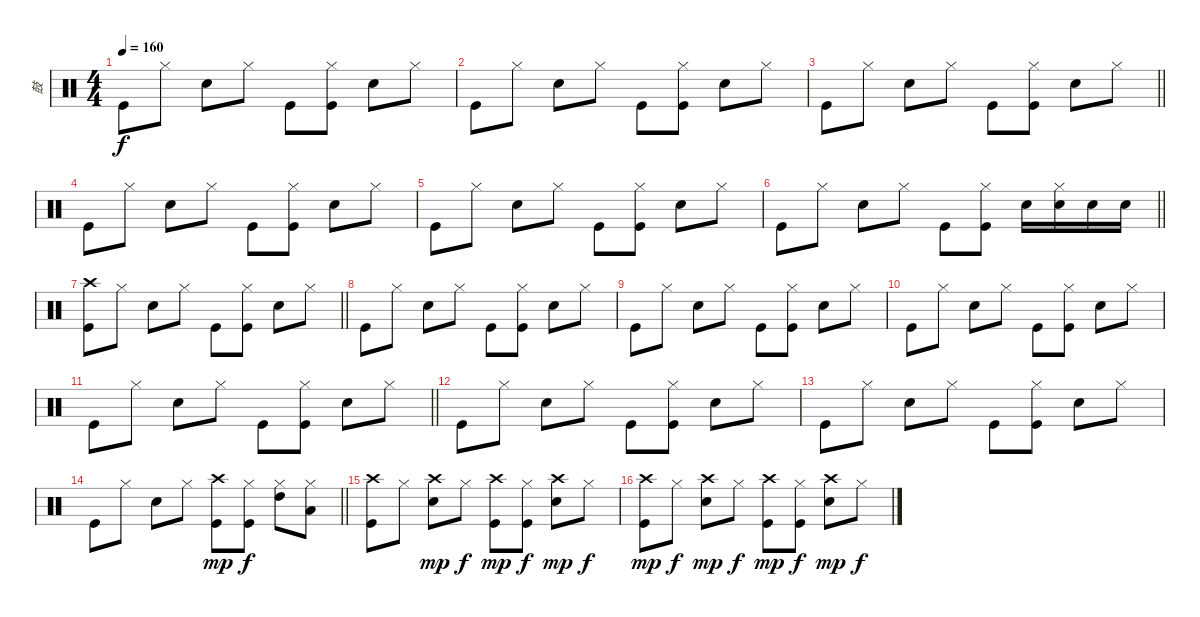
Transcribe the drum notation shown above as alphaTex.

\track ("鼓" "鼓") {instrument percussion}
\staff {score}
\articulation defaults
\ts (4 4)
\tempo 160
\clef neutral
\ks c "Kick (hit)".8{dy f} "Hi-Hat (closed)".8 "Electric Snare (hit)".8 "Hi-Hat (closed)".8 "Kick (hit)".8
("Hi-Hat (closed)" "Kick (hit)").8 "Electric Snare (hit)".8 "Hi-Hat (closed)".8 |
"Kick (hit)".8 "Hi-Hat (closed)".8 "Electric Snare (hit)".8 "Hi-Hat (closed)".8 "Kick (hit)".8 ("Hi-Hat (closed)" "Kick (hit)").8 "Electric Snare (hit)".8 "Hi-Hat (closed)".8 |
\barLineRight lightlight "Kick (hit)".8 "Hi-Hat (closed)".8 "Electric Snare (hit)".8 "Hi-Hat (closed)".8 "Kick (hit)".8
("Hi-Hat (closed)" "Kick (hit)").8 "Electric Snare (hit)".8 "Hi-Hat (closed)".8 |
"Kick (hit)".8 "Hi-Hat (closed)".8 "Electric Snare (hit)".8 "Hi-Hat (closed)".8 "Kick (hit)".8 ("Hi-Hat (closed)" "Kick (hit)").8 "Electric Snare (hit)".8 "Hi-Hat (closed)".8 |
"Kick (hit)".8 "Hi-Hat (closed)".8 "Electric Snare (hit)".8 "Hi-Hat (closed)".8 "Kick (hit)".8 ("Hi-Hat (closed)" "Kick (hit)").8 "Electric Snare (hit)".8 "Hi-Hat (closed)".8 |
\barLineRight lightlight "Kick (hit)".8 "Hi-Hat (closed)".8 "Electric Snare (hit)".8 "Hi-Hat (closed)".8 "Kick (hit)".8
("Hi-Hat (closed)" "Kick (hit)").8 "Electric Snare (hit)".16 ("Hi-Hat (closed)" "Electric Snare (hit)").16 "Electric Snare (hit)".16 "Electric Snare (hit)".16 |
\section ("" "")
\barLineRight lightlight
("Crash high (hit)" "Kick (hit)").8 "Hi-Hat (closed)".8 "Electric Snare (hit)".8 "Hi-Hat (closed)".8 "Kick (hit)".8 ("Hi-Hat (closed)" "Kick (hit)").8 "Electric Snare (hit)".8 "Hi-Hat (closed)".8 |
"Kick (hit)".8 "Hi-Hat (closed)".8 "Electric Snare (hit)".8 "Hi-Hat (closed)".8 "Kick (hit)".8 ("Hi-Hat (closed)" "Kick (hit)").8 "Electric Snare (hit)".8 "Hi-Hat (closed)".8 |
"Kick (hit)".8 "Hi-Hat (closed)".8 "Electric Snare (hit)".8 "Hi-Hat (closed)".8 "Kick (hit)".8 ("Hi-Hat (closed)" "Kick (hit)").8 "Electric Snare (hit)".8 "Hi-Hat (closed)".8 |
"Kick (hit)".8 "Hi-Hat (closed)".8 "Electric Snare (hit)".8 "Hi-Hat (closed)".8 "Kick (hit)".8 ("Hi-Hat (closed)" "Kick (hit)").8 "Electric Snare (hit)".8 "Hi-Hat (closed)".8 |
\barLineRight lightlight "Kick (hit)".8 "Hi-Hat (closed)".8 "Electric Snare (hit)".8 "Hi-Hat (closed)".8 "Kick (hit)".8
("Hi-Hat (closed)" "Kick (hit)").8 "Electric Snare (hit)".8 "Hi-Hat (closed)".8 |
"Kick (hit)".8 "Hi-Hat (closed)".8 "Electric Snare (hit)".8 "Hi-Hat (closed)".8 "Kick (hit)".8 ("Hi-Hat (closed)" "Kick (hit)").8 "Electric Snare (hit)".8 "Hi-Hat (closed)".8 |
"Kick (hit)".8 "Hi-Hat (closed)".8 "Electric Snare (hit)".8 "Hi-Hat (closed)".8 "Kick (hit)".8 ("Hi-Hat (closed)" "Kick (hit)").8 "Electric Snare (hit)".8 "Hi-Hat (closed)".8 |
\barLineRight lightlight "Kick (hit)".8 "Hi-Hat (closed)".8 "Electric Snare (hit)".8 "Hi-Hat (closed)".8
("Crash high (hit)" "Kick (hit)").8{dy mp} ("Hi-Hat (closed)" "Kick (hit)").8{dy f} ("High Tom (hit)" "Hi-Hat (closed)").8{volume 16} ("Low Tom (hit)" "Hi-Hat (closed)").8{volume 16} |
("Crash high (hit)" "Kick (hit)").8 "Hi-Hat (closed)".8 ("Crash high (hit)" "Electric Snare (hit)").8{dy mp} "Hi-Hat (closed)".8{dy f} ("Crash high (hit)" "Kick (hit)").8{dy mp} ("Hi-Hat (closed)" "Kick (hit)").8{dy f} ("Crash high (hit)" "Electric Snare (hit)").8{dy mp} "Hi-Hat (closed)".8{dy f} |
("Crash high (hit)" "Kick (hit)").8{dy mp} "Hi-Hat (closed)".8{dy f} ("Crash high (hit)" "Electric Snare (hit)").8{dy mp} "Hi-Hat (closed)".8{dy f} ("Crash high (hit)" "Kick (hit)").8{dy mp} ("Hi-Hat (closed)" "Kick (hit)").8{dy f} ("Crash high (hit)" "Electric Snare (hit)").8{dy mp} "Hi-Hat (closed)".8{dy f}
